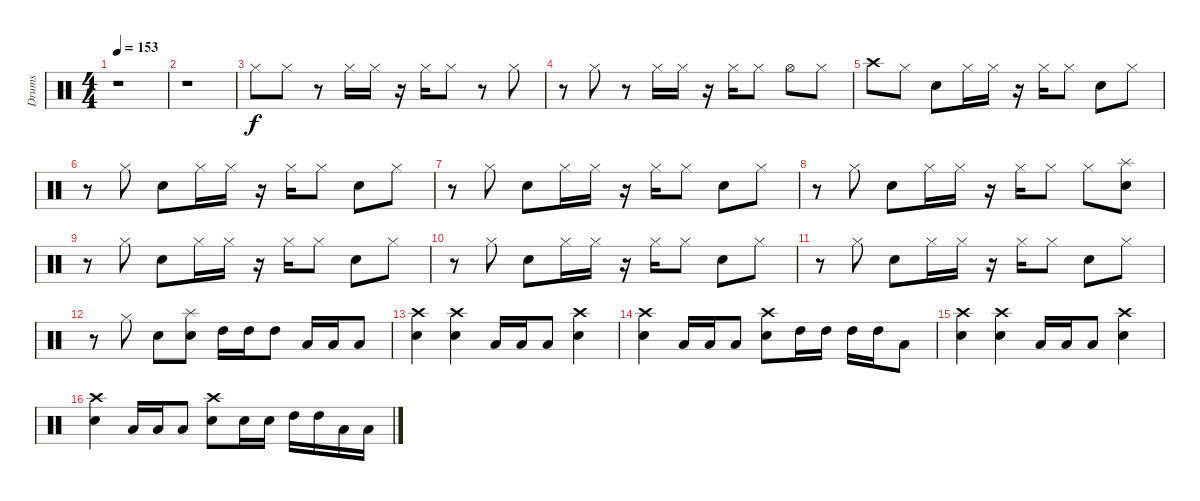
\track ("Drums" "Drums") {instrument percussion}
\staff {score}
\articulation defaults
\ts (4 4)
\tempo 153
\clef neutral
\ks c
r.1{dy f} |
r.1 |
"Hi-Hat (closed)".8 "Hi-Hat (closed)".8 r.8 "Hi-Hat (closed)".16 "Hi-Hat (closed)".16 r.16 "Hi-Hat (closed)".16 "Hi-Hat (closed)".8 r.8 "Hi-Hat (closed)".8 |
r.8 "Hi-Hat (closed)".8 r.8 "Hi-Hat (closed)".16 "Hi-Hat (closed)".16 r.16 "Hi-Hat (closed)".16 "Hi-Hat (closed)".8 "Hi-Hat (open)".8 "Hi-Hat (closed)".8 |
"Crash high (hit)".8 "Hi-Hat (closed)".8 "Snare (hit) 2".8 "Hi-Hat (closed)".16 "Hi-Hat (closed)".16 r.16 "Hi-Hat (closed)".16 "Hi-Hat (closed)".8 "Snare (hit) 2".8 "Hi-Hat (closed)".8 |
r.8 "Hi-Hat (closed)".8 "Snare (hit) 2".8 "Hi-Hat (closed)".16 "Hi-Hat (closed)".16 r.16 "Hi-Hat (closed)".16 "Hi-Hat (closed)".8 "Snare (hit) 2".8 "Hi-Hat (closed)".8 |
r.8 "Hi-Hat (closed)".8 "Snare (hit) 2".8 "Hi-Hat (closed)".16 "Hi-Hat (closed)".16 r.16 "Hi-Hat (closed)".16 "Hi-Hat (closed)".8 "Snare (hit) 2".8 "Hi-Hat (closed)".8 |
r.8 "Hi-Hat (closed)".8 "Snare (hit) 2".8 "Hi-Hat (closed)".16 "Hi-Hat (closed)".16 r.16 "Hi-Hat (closed)".16 "Hi-Hat (closed)".8 "Hi-Hat (closed)".8 ("Splash (hit)" "Snare (hit) 2").8 |
r.8 "Hi-Hat (closed)".8 "Snare (hit) 2".8 "Hi-Hat (closed)".16 "Hi-Hat (closed)".16 r.16 "Hi-Hat (closed)".16 "Hi-Hat (closed)".8 "Snare (hit) 2".8 "Hi-Hat (closed)".8 |
r.8 "Hi-Hat (closed)".8 "Snare (hit) 2".8 "Hi-Hat (closed)".16 "Hi-Hat (closed)".16 r.16 "Hi-Hat (closed)".16 "Hi-Hat (closed)".8 "Snare (hit) 2".8 "Hi-Hat (closed)".8 |
r.8 "Hi-Hat (closed)".8 "Snare (hit) 2".8 "Hi-Hat (closed)".16 "Hi-Hat (closed)".16 r.16 "Hi-Hat (closed)".16 "Hi-Hat (closed)".8 "Snare (hit) 2".8 "Hi-Hat (closed)".8 |
r.8 "Hi-Hat (closed)".8 "Snare (hit) 2".8 ("Splash (hit)" "Snare (hit) 2").8 "High Tom (hit)".16 "High Tom (hit)".16 "High Tom (hit)".8 "Low Tom (hit)".16 "Low Tom (hit)".16 "Low Tom (hit)".8 |
("Crash high (hit)" "Snare (hit) 2").4 ("Crash high (hit)" "Snare (hit) 2").4 "Low Tom (hit)".16 "Low Tom (hit)".16 "Low Tom (hit)".8 ("Crash high (hit)" "Snare (hit) 2").4 |
("Crash high (hit)" "Snare (hit) 2").4 "Low Tom (hit)".16 "Low Tom (hit)".16 "Low Tom (hit)".8 ("Crash high (hit)" "Snare (hit) 2").8 "High Tom (hit)".16 "High Tom (hit)".16 "High Tom (hit)".16 "High Tom (hit)".16 "Low Tom (hit)".8 |
("Crash high (hit)" "Snare (hit) 2").4 ("Crash high (hit)" "Snare (hit) 2").4 "Low Tom (hit)".16 "Low Tom (hit)".16 "Low Tom (hit)".8 ("Crash high (hit)" "Snare (hit) 2").4 |
("Crash high (hit)" "Snare (hit) 2").4 "Low Tom (hit)".16 "Low Tom (hit)".16 "Low Tom (hit)".8 ("Crash high (hit)" "Snare (hit) 2").8 "Snare (hit) 2".16 "Snare (hit) 2".16 "High Tom (hit)".16 "High Tom (hit)".16 "Low Tom (hit)".16 "Low Tom (hit)".16
